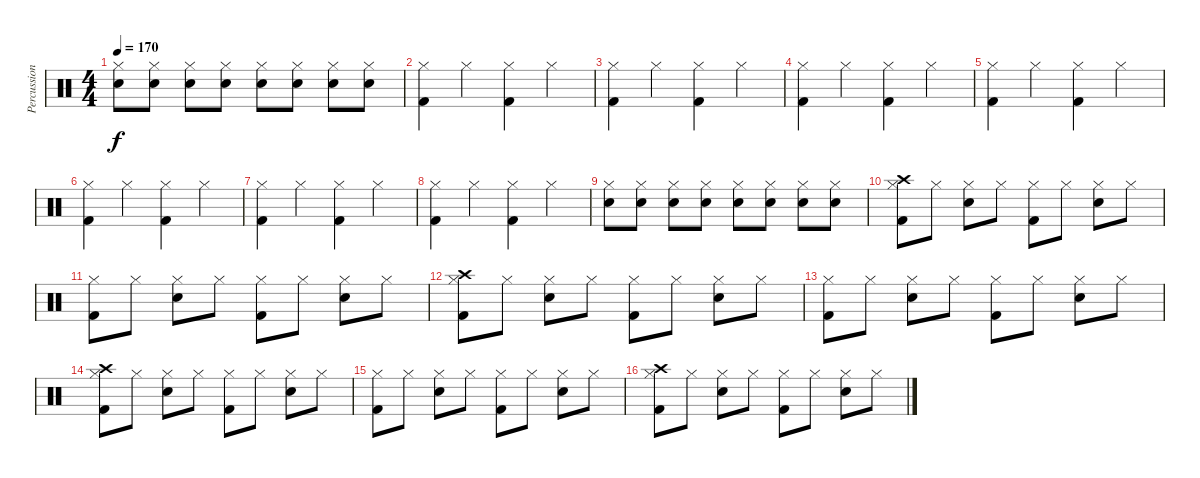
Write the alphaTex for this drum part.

\track ("Percussion" "Percussion") {instrument percussion}
\staff {score}
\articulation defaults
\ts (4 4)
\tempo 170
\clef neutral
\ks c
("Hi-Hat (closed)" "Snare (hit) 2").8{dy f} ("Hi-Hat (closed)" "Snare (hit) 2").8 ("Hi-Hat (closed)" "Snare (hit) 2").8 ("Hi-Hat (closed)" "Snare (hit) 2").8 ("Hi-Hat (closed)" "Snare (hit) 2").8 ("Hi-Hat (closed)" "Snare (hit) 2").8 ("Hi-Hat (closed)" "Snare (hit) 2").8 ("Hi-Hat (closed)" "Snare (hit) 2").8 |
("Hi-Hat (closed)" "Kick (hit) 2").4 "Hi-Hat (closed)".4 ("Hi-Hat (closed)" "Kick (hit) 2").4 "Hi-Hat (closed)".4 |
("Hi-Hat (closed)" "Kick (hit) 2").4 "Hi-Hat (closed)".4 ("Hi-Hat (closed)" "Kick (hit) 2").4 "Hi-Hat (closed)".4 |
("Hi-Hat (closed)" "Kick (hit) 2").4 "Hi-Hat (closed)".4 ("Hi-Hat (closed)" "Kick (hit) 2").4 "Hi-Hat (closed)".4 |
("Hi-Hat (closed)" "Kick (hit) 2").4 "Hi-Hat (closed)".4 ("Hi-Hat (closed)" "Kick (hit) 2").4 "Hi-Hat (closed)".4 |
("Hi-Hat (closed)" "Kick (hit) 2").4 "Hi-Hat (closed)".4 ("Hi-Hat (closed)" "Kick (hit) 2").4 "Hi-Hat (closed)".4 |
("Hi-Hat (closed)" "Kick (hit) 2").4 "Hi-Hat (closed)".4 ("Hi-Hat (closed)" "Kick (hit) 2").4 "Hi-Hat (closed)".4 |
("Hi-Hat (closed)" "Kick (hit) 2").4 "Hi-Hat (closed)".4 ("Hi-Hat (closed)" "Kick (hit) 2").4 "Hi-Hat (closed)".4 |
("Hi-Hat (closed)" "Snare (hit) 2").8 ("Hi-Hat (closed)" "Snare (hit) 2").8 ("Hi-Hat (closed)" "Snare (hit) 2").8 ("Hi-Hat (closed)" "Snare (hit) 2").8 ("Hi-Hat (closed)" "Snare (hit) 2").8 ("Hi-Hat (closed)" "Snare (hit) 2").8 ("Hi-Hat (closed)" "Snare (hit) 2").8 ("Hi-Hat (closed)" "Snare (hit) 2").8 |
("Hi-Hat (closed)" "Crash high (hit)" "Kick (hit) 2").8 "Hi-Hat (closed)".8 ("Hi-Hat (closed)" "Snare (hit) 2").8 "Hi-Hat (closed)".8 ("Hi-Hat (closed)" "Kick (hit) 2").8 "Hi-Hat (closed)".8 ("Hi-Hat (closed)" "Snare (hit) 2").8 "Hi-Hat (closed)".8 |
("Hi-Hat (closed)" "Kick (hit) 2").8 "Hi-Hat (closed)".8 ("Hi-Hat (closed)" "Snare (hit) 2").8 "Hi-Hat (closed)".8 ("Hi-Hat (closed)" "Kick (hit) 2").8 "Hi-Hat (closed)".8 ("Hi-Hat (closed)" "Snare (hit) 2").8 "Hi-Hat (closed)".8 |
("Hi-Hat (closed)" "Crash high (hit)" "Kick (hit) 2").8 "Hi-Hat (closed)".8 ("Hi-Hat (closed)" "Snare (hit) 2").8 "Hi-Hat (closed)".8 ("Hi-Hat (closed)" "Kick (hit) 2").8 "Hi-Hat (closed)".8 ("Hi-Hat (closed)" "Snare (hit) 2").8 "Hi-Hat (closed)".8 |
("Hi-Hat (closed)" "Kick (hit) 2").8 "Hi-Hat (closed)".8 ("Hi-Hat (closed)" "Snare (hit) 2").8 "Hi-Hat (closed)".8 ("Hi-Hat (closed)" "Kick (hit) 2").8 "Hi-Hat (closed)".8 ("Hi-Hat (closed)" "Snare (hit) 2").8 "Hi-Hat (closed)".8 |
("Hi-Hat (closed)" "Crash high (hit)" "Kick (hit) 2").8 "Hi-Hat (closed)".8 ("Hi-Hat (closed)" "Snare (hit) 2").8 "Hi-Hat (closed)".8 ("Hi-Hat (closed)" "Kick (hit) 2").8 "Hi-Hat (closed)".8 ("Hi-Hat (closed)" "Snare (hit) 2").8 "Hi-Hat (closed)".8 |
("Hi-Hat (closed)" "Kick (hit) 2").8 "Hi-Hat (closed)".8 ("Hi-Hat (closed)" "Snare (hit) 2").8 "Hi-Hat (closed)".8 ("Hi-Hat (closed)" "Kick (hit) 2").8 "Hi-Hat (closed)".8 ("Hi-Hat (closed)" "Snare (hit) 2").8 "Hi-Hat (closed)".8 |
("Hi-Hat (closed)" "Crash high (hit)" "Kick (hit) 2").8 "Hi-Hat (closed)".8 ("Hi-Hat (closed)" "Snare (hit) 2").8 "Hi-Hat (closed)".8 ("Hi-Hat (closed)" "Kick (hit) 2").8 "Hi-Hat (closed)".8 ("Hi-Hat (closed)" "Snare (hit) 2").8 "Hi-Hat (closed)".8
